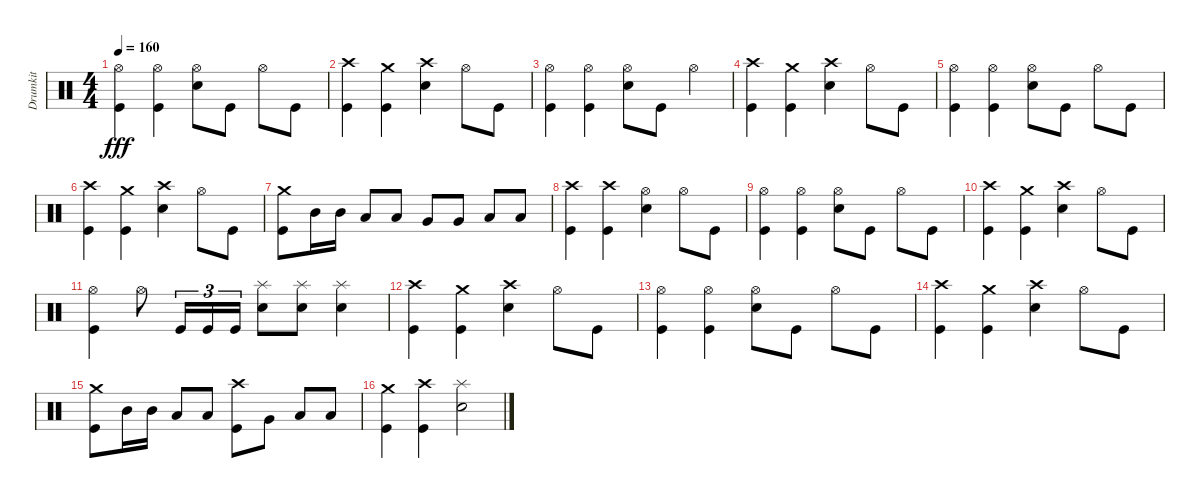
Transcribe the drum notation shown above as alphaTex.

\track ("Drumkit" "Drumkit") {instrument percussion}
\staff {score}
\articulation defaults
\ts (4 4)
\tempo 160
\clef neutral
\ks c
("Kick (hit)" "Hi-Hat (open)").4{dy fff} ("Hi-Hat (open)" "Kick (hit)").4 ("Hi-Hat (open)" "Snare (hit) 2").8 "Kick (hit)".8 "Hi-Hat (open)".8 "Kick (hit)".8 |
("Kick (hit)" "Crash high (hit)").4 ("Kick (hit)" "Crash medium (hit)").4 ("Snare (hit) 2" "Crash high (hit)").4 "Hi-Hat (open)".8 "Kick (hit)".8 |
("Kick (hit)" "Hi-Hat (open)").4 ("Hi-Hat (open)" "Kick (hit)").4 ("Hi-Hat (open)" "Snare (hit) 2").8 "Kick (hit)".8 "Hi-Hat (open)".4 |
("Kick (hit)" "Crash high (hit)").4 ("Kick (hit)" "Crash medium (hit)").4 ("Snare (hit) 2" "Crash high (hit)").4 "Hi-Hat (open)".8 "Kick (hit)".8 |
("Kick (hit)" "Hi-Hat (open)").4 ("Hi-Hat (open)" "Kick (hit)").4 ("Hi-Hat (open)" "Snare (hit) 2").8 "Kick (hit)".8 "Hi-Hat (open)".8 "Kick (hit)".8 |
("Kick (hit)" "Crash high (hit)").4 ("Kick (hit)" "Crash medium (hit)").4 ("Snare (hit) 2" "Crash high (hit)").4 "Hi-Hat (open)".8 "Kick (hit)".8 |
("Kick (hit)" "Crash medium (hit)").8 "Mid Tom (hit)".16 "Mid Tom (hit)".16 "Low Tom (hit)".8 "Low Tom (hit)".8 "Very Low Tom (hit)".8 "Very Low Tom (hit)".8 "Low Floor Tom (hit)".8 "Low Floor Tom (hit)".8 |
("Kick (hit)" "Crash high (hit)").4 ("Kick (hit)" "Crash high (hit)").4 ("Hi-Hat (open)" "Snare (hit) 2").4 "Hi-Hat (open)".8 "Kick (hit)".8 |
("Kick (hit)" "Hi-Hat (open)").4 ("Hi-Hat (open)" "Kick (hit)").4 ("Hi-Hat (open)" "Snare (hit) 2").8 "Kick (hit)".8 "Hi-Hat (open)".8 "Kick (hit)".8 |
("Kick (hit)" "Crash high (hit)").4 ("Kick (hit)" "Crash medium (hit)").4 ("Snare (hit) 2" "Crash high (hit)").4 "Hi-Hat (open)".8 "Kick (hit)".8 |
("Kick (hit)" "Hi-Hat (open)").4 "Hi-Hat (open)".8 "Kick (hit)".16{tu (3 2)} "Kick (hit)".16{tu (3 2)} "Kick (hit)".16{tu (3 2)} ("Snare (hit) 2" "Splash (hit)").8 ("Snare (hit) 2" "Splash (hit)").8 ("Snare (hit) 2" "Splash (hit)").4 |
("Kick (hit)" "Crash high (hit)").4 ("Kick (hit)" "Crash medium (hit)").4 ("Snare (hit) 2" "Crash high (hit)").4 "Hi-Hat (open)".8 "Kick (hit)".8 |
("Kick (hit)" "Hi-Hat (open)").4 ("Hi-Hat (open)" "Kick (hit)").4 ("Hi-Hat (open)" "Snare (hit) 2").8 "Kick (hit)".8 "Hi-Hat (open)".8 "Kick (hit)".8 |
("Kick (hit)" "Crash high (hit)").4 ("Kick (hit)" "Crash medium (hit)").4 ("Snare (hit) 2" "Crash high (hit)").4 "Hi-Hat (open)".8 "Kick (hit)".8 |
("Kick (hit)" "Crash medium (hit)").8 "Mid Tom (hit)".16 "Mid Tom (hit)".16 "Low Tom (hit)".8 "Low Tom (hit)".8 ("Kick (hit)" "Crash high (hit)").8 "Very Low Tom (hit)".8 "Low Floor Tom (hit)".8 "Low Floor Tom (hit)".8 |
("Kick (hit)" "Crash medium (hit)").4 ("Kick (hit)" "Crash high (hit)").4 ("Snare (hit) 2" "Splash (hit)").2
